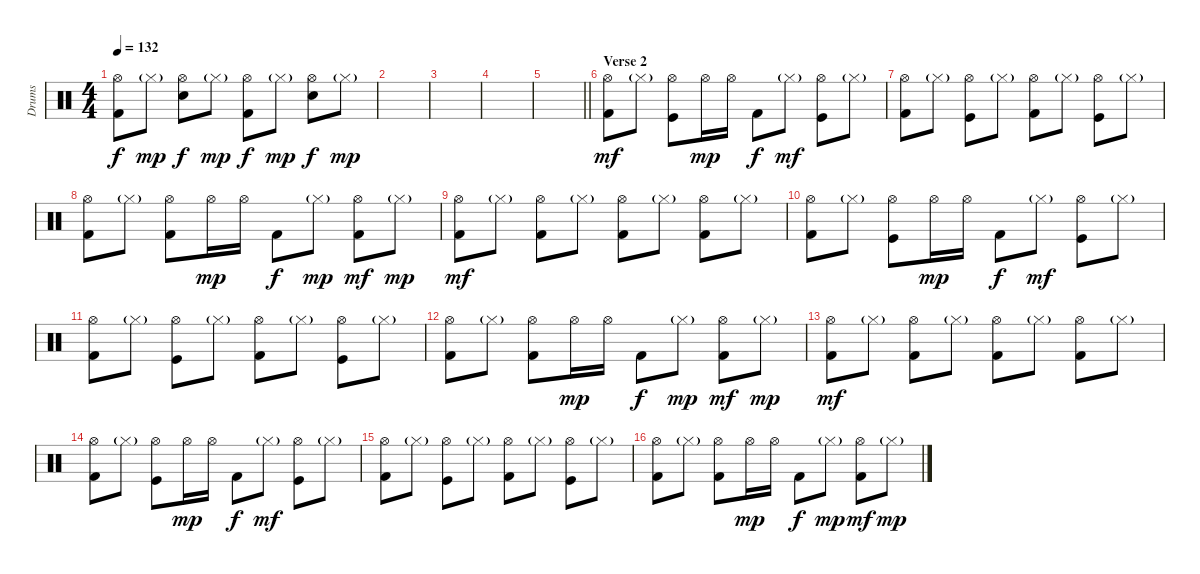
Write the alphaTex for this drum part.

\track ("Drums" "Drums") {instrument percussion}
\staff {score}
\articulation defaults
\ts (4 4)
\tempo 132
\clef neutral
\ks c
("Hi-Hat (open)" "Kick (hit) 2").8{dy f} "Hi-Hat (closed)"{g}.8{dy mp} ("Hi-Hat (open)" "Snare (hit) 2").8{dy f} "Hi-Hat (closed)"{g}.8{dy mp} ("Hi-Hat (open)" "Kick (hit) 2").8{dy f} "Hi-Hat (closed)"{g}.8{dy mp} ("Hi-Hat (open)" "Snare (hit) 2").8{dy f} "Hi-Hat (closed)"{g}.8{dy mp} |
|
|
|
\barLineRight lightlight
|
\section ("" "Verse 2")
("Hi-Hat (open)" "Kick (hit) 2").8{dy mf} "Hi-Hat (closed)"{g}.8 ("Hi-Hat (open)" "Kick (hit)").8 "Hi-Hat (open)".16{dy mp} "Hi-Hat (open)".16 "Kick (hit) 2".8{dy f} "Hi-Hat (closed)"{g}.8{dy mf} ("Hi-Hat (open)" "Kick (hit)").8 "Hi-Hat (closed)"{g}.8 |
("Hi-Hat (open)" "Kick (hit) 2").8 "Hi-Hat (closed)"{g}.8 ("Hi-Hat (open)" "Kick (hit)").8 "Hi-Hat (closed)"{g}.8 ("Hi-Hat (open)" "Kick (hit) 2").8 "Hi-Hat (closed)"{g}.8 ("Hi-Hat (open)" "Kick (hit)").8 "Hi-Hat (closed)"{g}.8 |
("Hi-Hat (open)" "Kick (hit) 2").8 "Hi-Hat (closed)"{g}.8 ("Hi-Hat (open)" "Kick (hit) 2").8 "Hi-Hat (open)".16{dy mp} "Hi-Hat (open)".16 "Kick (hit) 2".8{dy f} "Hi-Hat (closed)"{g}.8{dy mp} ("Hi-Hat (open)" "Kick (hit) 2").8{dy mf} "Hi-Hat (closed)"{g}.8{dy mp} |
("Hi-Hat (open)" "Kick (hit) 2").8{dy mf} "Hi-Hat (closed)"{g}.8 ("Hi-Hat (open)" "Kick (hit) 2").8 "Hi-Hat (closed)"{g}.8 ("Hi-Hat (open)" "Kick (hit) 2").8 "Hi-Hat (closed)"{g}.8 ("Hi-Hat (open)" "Kick (hit) 2").8 "Hi-Hat (closed)"{g}.8 |
("Hi-Hat (open)" "Kick (hit) 2").8 "Hi-Hat (closed)"{g}.8 ("Hi-Hat (open)" "Kick (hit)").8 "Hi-Hat (open)".16{dy mp} "Hi-Hat (open)".16 "Kick (hit) 2".8{dy f} "Hi-Hat (closed)"{g}.8{dy mf} ("Hi-Hat (open)" "Kick (hit)").8 "Hi-Hat (closed)"{g}.8 |
("Hi-Hat (open)" "Kick (hit) 2").8 "Hi-Hat (closed)"{g}.8 ("Hi-Hat (open)" "Kick (hit)").8 "Hi-Hat (closed)"{g}.8 ("Hi-Hat (open)" "Kick (hit) 2").8 "Hi-Hat (closed)"{g}.8 ("Hi-Hat (open)" "Kick (hit)").8 "Hi-Hat (closed)"{g}.8 |
("Hi-Hat (open)" "Kick (hit) 2").8 "Hi-Hat (closed)"{g}.8 ("Hi-Hat (open)" "Kick (hit) 2").8 "Hi-Hat (open)".16{dy mp} "Hi-Hat (open)".16 "Kick (hit) 2".8{dy f} "Hi-Hat (closed)"{g}.8{dy mp} ("Hi-Hat (open)" "Kick (hit) 2").8{dy mf} "Hi-Hat (closed)"{g}.8{dy mp} |
("Hi-Hat (open)" "Kick (hit) 2").8{dy mf} "Hi-Hat (closed)"{g}.8 ("Hi-Hat (open)" "Kick (hit) 2").8 "Hi-Hat (closed)"{g}.8 ("Hi-Hat (open)" "Kick (hit) 2").8 "Hi-Hat (closed)"{g}.8 ("Hi-Hat (open)" "Kick (hit) 2").8 "Hi-Hat (closed)"{g}.8 |
("Hi-Hat (open)" "Kick (hit) 2").8 "Hi-Hat (closed)"{g}.8 ("Hi-Hat (open)" "Kick (hit)").8 "Hi-Hat (open)".16{dy mp} "Hi-Hat (open)".16 "Kick (hit) 2".8{dy f} "Hi-Hat (closed)"{g}.8{dy mf} ("Hi-Hat (open)" "Kick (hit)").8 "Hi-Hat (closed)"{g}.8 |
("Hi-Hat (open)" "Kick (hit) 2").8 "Hi-Hat (closed)"{g}.8 ("Hi-Hat (open)" "Kick (hit)").8 "Hi-Hat (closed)"{g}.8 ("Hi-Hat (open)" "Kick (hit) 2").8 "Hi-Hat (closed)"{g}.8 ("Hi-Hat (open)" "Kick (hit)").8 "Hi-Hat (closed)"{g}.8 |
("Hi-Hat (open)" "Kick (hit) 2").8 "Hi-Hat (closed)"{g}.8 ("Hi-Hat (open)" "Kick (hit) 2").8 "Hi-Hat (open)".16{dy mp} "Hi-Hat (open)".16 "Kick (hit) 2".8{dy f} "Hi-Hat (closed)"{g}.8{dy mp} ("Hi-Hat (open)" "Kick (hit) 2").8{dy mf} "Hi-Hat (closed)"{g}.8{dy mp}
